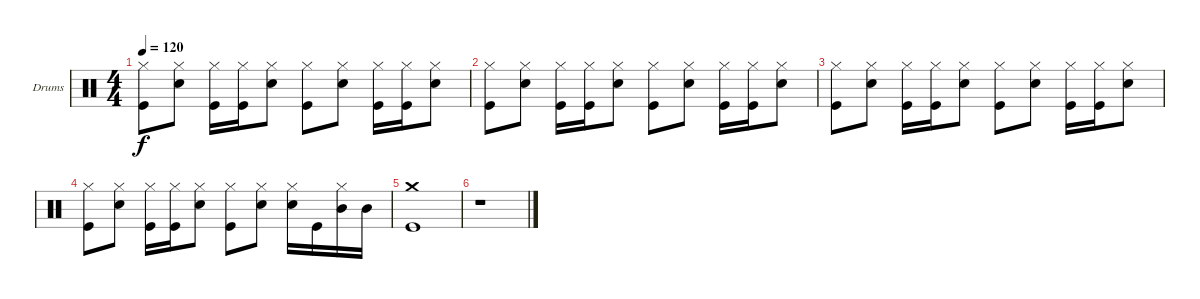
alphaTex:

\defaultSystemsLayout 4
\bracketExtendMode groupsimilarinstruments
\firstSystemTrackNameOrientation horizontal
\otherSystemsTrackNameOrientation horizontal
\track ("Drumkit" "Drums") {instrument percussion}
\staff {score}
\articulation defaults
\ts (4 4)
\tempo 120
\clef neutral
\ks c
("Hi-Hat (closed)" "Kick (hit)").8{dy f} ("Hi-Hat (closed)" "Snare (hit) 2").8 ("Hi-Hat (closed)" "Kick (hit)").16 ("Hi-Hat (closed)" "Kick (hit)").16 ("Hi-Hat (closed)" "Snare (hit) 2").8 ("Hi-Hat (closed)" "Kick (hit)").8 ("Hi-Hat (closed)" "Snare (hit) 2").8 ("Hi-Hat (closed)" "Kick (hit)").16 ("Hi-Hat (closed)" "Kick (hit)").16 ("Hi-Hat (closed)" "Snare (hit) 2").8 |
("Hi-Hat (closed)" "Kick (hit)").8 ("Hi-Hat (closed)" "Snare (hit) 2").8 ("Hi-Hat (closed)" "Kick (hit)").16 ("Hi-Hat (closed)" "Kick (hit)").16 ("Hi-Hat (closed)" "Snare (hit) 2").8 ("Hi-Hat (closed)" "Kick (hit)").8 ("Hi-Hat (closed)" "Snare (hit) 2").8 ("Hi-Hat (closed)" "Kick (hit)").16 ("Hi-Hat (closed)" "Kick (hit)").16 ("Hi-Hat (closed)" "Snare (hit) 2").8 |
("Hi-Hat (closed)" "Kick (hit)").8 ("Hi-Hat (closed)" "Snare (hit) 2").8 ("Hi-Hat (closed)" "Kick (hit)").16 ("Hi-Hat (closed)" "Kick (hit)").16 ("Hi-Hat (closed)" "Snare (hit) 2").8 ("Hi-Hat (closed)" "Kick (hit)").8 ("Hi-Hat (closed)" "Snare (hit) 2").8 ("Hi-Hat (closed)" "Kick (hit)").16 ("Hi-Hat (closed)" "Kick (hit)").16 ("Hi-Hat (closed)" "Snare (hit) 2").8 |
("Hi-Hat (closed)" "Kick (hit)").8 ("Hi-Hat (closed)" "Snare (hit) 2").8 ("Hi-Hat (closed)" "Kick (hit)").16 ("Hi-Hat (closed)" "Kick (hit)").16 ("Hi-Hat (closed)" "Snare (hit) 2").8 ("Hi-Hat (closed)" "Kick (hit)").8 ("Hi-Hat (closed)" "Snare (hit) 2").8 ("Hi-Hat (closed)" "Snare (hit) 2").16 "Kick (hit)".16 ("Hi-Hat (closed)" "Mid Tom (hit)").16 "Mid Tom (hit)".16 |
("Crash medium (hit)" "Kick (hit)").1 |
r.1
